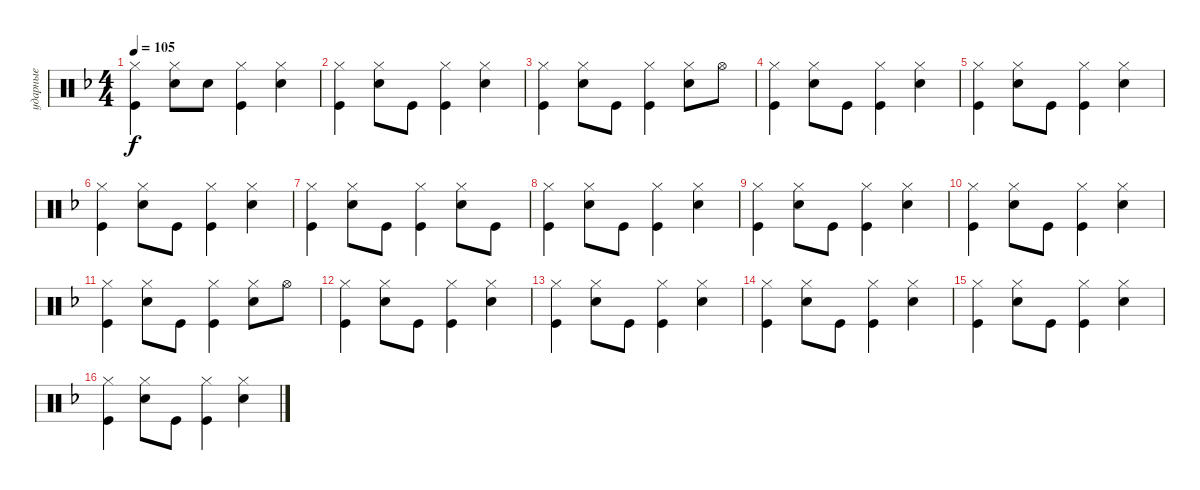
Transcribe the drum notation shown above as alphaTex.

\track ("ударные" "ударные") {instrument percussion}
\staff {score}
\articulation defaults
\ts (4 4)
\tempo 105
\clef neutral
\ks f
("Kick (hit)" "Hi-Hat (closed)").4{dy f} ("Snare (hit) 2" "Hi-Hat (closed)").8 "Snare (hit) 2".8 ("Hi-Hat (closed)" "Kick (hit)").4 ("Snare (hit) 2" "Hi-Hat (closed)").4 |
("Kick (hit)" "Hi-Hat (closed)").4 ("Snare (hit) 2" "Hi-Hat (closed)").8 "Kick (hit)".8 ("Kick (hit)" "Hi-Hat (closed)").4 ("Snare (hit) 2" "Hi-Hat (closed)").4 |
("Kick (hit)" "Hi-Hat (closed)").4 ("Snare (hit) 2" "Hi-Hat (closed)").8 "Kick (hit)".8 ("Kick (hit)" "Hi-Hat (closed)").4 ("Snare (hit) 2" "Hi-Hat (closed)").8 "Hi-Hat (open)".8 |
("Kick (hit)" "Hi-Hat (closed)").4 ("Snare (hit) 2" "Hi-Hat (closed)").8 "Kick (hit)".8 ("Kick (hit)" "Hi-Hat (closed)").4 ("Snare (hit) 2" "Hi-Hat (closed)").4 |
("Kick (hit)" "Hi-Hat (closed)").4 ("Snare (hit) 2" "Hi-Hat (closed)").8 "Kick (hit)".8 ("Kick (hit)" "Hi-Hat (closed)").4 ("Snare (hit) 2" "Hi-Hat (closed)").4 |
("Kick (hit)" "Hi-Hat (closed)").4 ("Snare (hit) 2" "Hi-Hat (closed)").8 "Kick (hit)".8 ("Kick (hit)" "Hi-Hat (closed)").4 ("Snare (hit) 2" "Hi-Hat (closed)").4 |
("Kick (hit)" "Hi-Hat (closed)").4 ("Snare (hit) 2" "Hi-Hat (closed)").8 "Kick (hit)".8 ("Kick (hit)" "Hi-Hat (closed)").4 ("Snare (hit) 2" "Hi-Hat (closed)").8 "Kick (hit)".8 |
("Kick (hit)" "Hi-Hat (closed)").4 ("Snare (hit) 2" "Hi-Hat (closed)").8 "Kick (hit)".8 ("Kick (hit)" "Hi-Hat (closed)").4 ("Snare (hit) 2" "Hi-Hat (closed)").4 |
("Kick (hit)" "Hi-Hat (closed)").4 ("Snare (hit) 2" "Hi-Hat (closed)").8 "Kick (hit)".8 ("Kick (hit)" "Hi-Hat (closed)").4 ("Snare (hit) 2" "Hi-Hat (closed)").4 |
("Kick (hit)" "Hi-Hat (closed)").4 ("Snare (hit) 2" "Hi-Hat (closed)").8 "Kick (hit)".8 ("Kick (hit)" "Hi-Hat (closed)").4 ("Snare (hit) 2" "Hi-Hat (closed)").4 |
("Kick (hit)" "Hi-Hat (closed)").4 ("Snare (hit) 2" "Hi-Hat (closed)").8 "Kick (hit)".8 ("Kick (hit)" "Hi-Hat (closed)").4 ("Snare (hit) 2" "Hi-Hat (closed)").8 "Hi-Hat (open)".8 |
("Kick (hit)" "Hi-Hat (closed)").4 ("Snare (hit) 2" "Hi-Hat (closed)").8 "Kick (hit)".8 ("Kick (hit)" "Hi-Hat (closed)").4 ("Snare (hit) 2" "Hi-Hat (closed)").4 |
("Kick (hit)" "Hi-Hat (closed)").4 ("Snare (hit) 2" "Hi-Hat (closed)").8 "Kick (hit)".8 ("Kick (hit)" "Hi-Hat (closed)").4 ("Snare (hit) 2" "Hi-Hat (closed)").4 |
("Kick (hit)" "Hi-Hat (closed)").4 ("Snare (hit) 2" "Hi-Hat (closed)").8 "Kick (hit)".8 ("Kick (hit)" "Hi-Hat (closed)").4 ("Snare (hit) 2" "Hi-Hat (closed)").4 |
("Kick (hit)" "Hi-Hat (closed)").4 ("Snare (hit) 2" "Hi-Hat (closed)").8 "Kick (hit)".8 ("Kick (hit)" "Hi-Hat (closed)").4 ("Snare (hit) 2" "Hi-Hat (closed)").4 |
("Kick (hit)" "Hi-Hat (closed)").4 ("Snare (hit) 2" "Hi-Hat (closed)").8 "Kick (hit)".8 ("Kick (hit)" "Hi-Hat (closed)").4 ("Snare (hit) 2" "Hi-Hat (closed)").4
